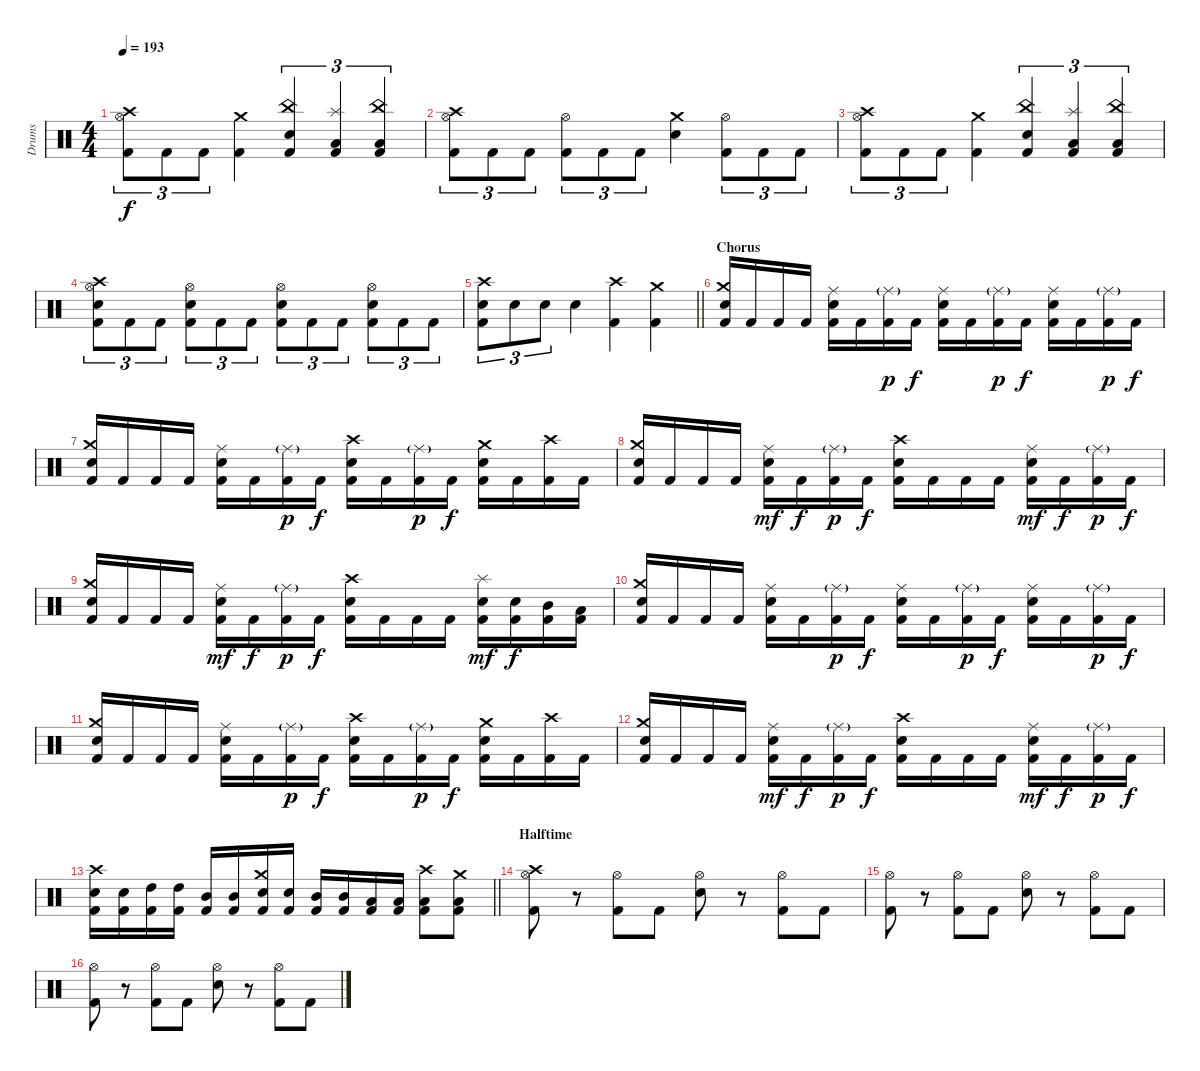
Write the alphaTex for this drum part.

\track ("Drums" "Drums") {instrument percussion}
\staff {score}
\articulation defaults
\ts (4 4)
\tempo 193
\clef neutral
\ks c
("Crash high (hit)" "Hi-Hat (open)" "Kick (hit) 2").8{tu (3 2) dy f} "Kick (hit) 2".8{tu (3 2)} "Kick (hit) 2".8{tu (3 2)} ("Crash medium (hit)" "Kick (hit) 2").4 ("China (hit)" "Snare (hit) 2" "Kick (hit) 2").4{tu (3 2)} ("Splash (hit)" "Low Floor Tom (hit)" "Kick (hit) 2").4{tu (3 2)} ("China (hit)" "Low Floor Tom (hit)" "Kick (hit) 2").4{tu (3 2)} |
("Crash high (hit)" "Hi-Hat (open)" "Kick (hit) 2").8{tu (3 2)} "Kick (hit) 2".8{tu (3 2)} "Kick (hit) 2".8{tu (3 2)} ("Hi-Hat (open)" "Kick (hit) 2").8{tu (3 2)} "Kick (hit) 2".8{tu (3 2)} "Kick (hit) 2".8{tu (3 2)} ("Crash medium (hit)" "Snare (hit) 2").4 ("Hi-Hat (open)" "Kick (hit) 2").8{tu (3 2)} "Kick (hit) 2".8{tu (3 2)} "Kick (hit) 2".8{tu (3 2)} |
("Crash high (hit)" "Hi-Hat (open)" "Kick (hit) 2").8{tu (3 2)} "Kick (hit) 2".8{tu (3 2)} "Kick (hit) 2".8{tu (3 2)} ("Crash medium (hit)" "Kick (hit) 2").4 ("China (hit)" "Snare (hit) 2" "Kick (hit) 2").4{tu (3 2)} ("Splash (hit)" "Low Floor Tom (hit)" "Kick (hit) 2").4{tu (3 2)} ("China (hit)" "Low Floor Tom (hit)" "Kick (hit) 2").4{tu (3 2)} |
("Crash high (hit)" "Hi-Hat (open)" "Snare (hit) 2" "Kick (hit) 2").8{tu (3 2)} "Kick (hit) 2".8{tu (3 2)} "Kick (hit) 2".8{tu (3 2)} ("Hi-Hat (open)" "Snare (hit) 2" "Kick (hit) 2").8{tu (3 2)} "Kick (hit) 2".8{tu (3 2)} "Kick (hit) 2".8{tu (3 2)} ("Hi-Hat (open)" "Snare (hit) 2" "Kick (hit) 2").8{tu (3 2)} "Kick (hit) 2".8{tu (3 2)} "Kick (hit) 2".8{tu (3 2)} ("Hi-Hat (open)" "Snare (hit) 2" "Kick (hit) 2").8{tu (3 2)} "Kick (hit) 2".8{tu (3 2)} "Kick (hit) 2".8{tu (3 2)} |
\barLineRight lightlight
("Crash high (hit)" "Snare (hit) 2" "Kick (hit) 2").8{tu (3 2)} "Snare (hit) 2".8{tu (3 2)} "Snare (hit) 2".8{tu (3 2)} "Snare (hit) 2".4 ("Crash high (hit)" "Kick (hit) 2").4 ("Crash medium (hit)" "Kick (hit) 2").4 |
\section ("" "Chorus")
("Crash medium (hit)" "Snare (hit) 2" "Kick (hit) 2").16 "Kick (hit) 2".16 "Kick (hit) 2".16 "Kick (hit) 2".16 ("Ride (middle)" "Snare (hit) 2" "Kick (hit) 2").16 "Kick (hit) 2".16 ("Ride (middle)"{g} "Kick (hit) 2").16{dy p} "Kick (hit) 2".16{dy f} ("Ride (middle)" "Snare (hit) 2" "Kick (hit) 2").16 "Kick (hit) 2".16 ("Ride (middle)"{g} "Kick (hit) 2").16{dy p} "Kick (hit) 2".16{dy f} ("Ride (middle)" "Snare (hit) 2" "Kick (hit) 2").16 "Kick (hit) 2".16 ("Ride (middle)"{g} "Kick (hit) 2").16{dy p} "Kick (hit) 2".16{dy f} |
("Crash medium (hit)" "Snare (hit) 2" "Kick (hit) 2").16 "Kick (hit) 2".16 "Kick (hit) 2".16 "Kick (hit) 2".16 ("Ride (middle)" "Snare (hit) 2" "Kick (hit) 2").16 "Kick (hit) 2".16 ("Ride (middle)"{g} "Kick (hit) 2").16{dy p} "Kick (hit) 2".16{dy f} ("Crash high (hit)" "Snare (hit) 2" "Kick (hit) 2").16 "Kick (hit) 2".16 ("Ride (middle)"{g} "Kick (hit) 2").16{dy p} "Kick (hit) 2".16{dy f} ("Crash medium (hit)" "Snare (hit) 2" "Kick (hit) 2").16 "Kick (hit) 2".16 ("Crash high (hit)" "Kick (hit) 2").16 "Kick (hit) 2".16 |
("Crash medium (hit)" "Snare (hit) 2" "Kick (hit) 2").16 "Kick (hit) 2".16 "Kick (hit) 2".16 "Kick (hit) 2".16 ("Ride (middle)" "Snare (hit) 2" "Kick (hit) 2").16{dy mf} "Kick (hit) 2".16{dy f} ("Ride (middle)"{g} "Kick (hit) 2").16{dy p} "Kick (hit) 2".16{dy f} ("Crash high (hit)" "Snare (hit) 2" "Kick (hit) 2").16 "Kick (hit) 2".16 "Kick (hit) 2".16 "Kick (hit) 2".16 ("Ride (middle)" "Snare (hit) 2" "Kick (hit) 2").16{dy mf} "Kick (hit) 2".16{dy f} ("Ride (middle)"{g} "Kick (hit) 2").16{dy p} "Kick (hit) 2".16{dy f} |
("Crash medium (hit)" "Snare (hit) 2" "Kick (hit) 2").16 "Kick (hit) 2".16 "Kick (hit) 2".16 "Kick (hit) 2".16 ("Ride (middle)" "Snare (hit) 2" "Kick (hit) 2").16{dy mf} "Kick (hit) 2".16{dy f} ("Ride (middle)"{g} "Kick (hit) 2").16{dy p} "Kick (hit) 2".16{dy f} ("Crash high (hit)" "Snare (hit) 2" "Kick (hit) 2").16 "Kick (hit) 2".16 "Kick (hit) 2".16 "Kick (hit) 2".16 ("Splash (hit)" "Snare (hit) 2" "Kick (hit) 2").16{dy mf} ("Snare (hit) 2" "Kick (hit) 2").16{dy f} ("Mid Tom (hit)" "Kick (hit) 2").16 ("Low Tom (hit)" "Kick (hit) 2").16 |
("Crash medium (hit)" "Snare (hit) 2" "Kick (hit) 2").16 "Kick (hit) 2".16 "Kick (hit) 2".16 "Kick (hit) 2".16 ("Ride (middle)" "Snare (hit) 2" "Kick (hit) 2").16 "Kick (hit) 2".16 ("Ride (middle)"{g} "Kick (hit) 2").16{dy p} "Kick (hit) 2".16{dy f} ("Ride (middle)" "Snare (hit) 2" "Kick (hit) 2").16 "Kick (hit) 2".16 ("Ride (middle)"{g} "Kick (hit) 2").16{dy p} "Kick (hit) 2".16{dy f} ("Ride (middle)" "Snare (hit) 2" "Kick (hit) 2").16 "Kick (hit) 2".16 ("Ride (middle)"{g} "Kick (hit) 2").16{dy p} "Kick (hit) 2".16{dy f} |
("Crash medium (hit)" "Snare (hit) 2" "Kick (hit) 2").16 "Kick (hit) 2".16 "Kick (hit) 2".16 "Kick (hit) 2".16 ("Ride (middle)" "Snare (hit) 2" "Kick (hit) 2").16 "Kick (hit) 2".16 ("Ride (middle)"{g} "Kick (hit) 2").16{dy p} "Kick (hit) 2".16{dy f} ("Crash high (hit)" "Snare (hit) 2" "Kick (hit) 2").16 "Kick (hit) 2".16 ("Ride (middle)"{g} "Kick (hit) 2").16{dy p} "Kick (hit) 2".16{dy f} ("Crash medium (hit)" "Snare (hit) 2" "Kick (hit) 2").16 "Kick (hit) 2".16 ("Crash high (hit)" "Kick (hit) 2").16 "Kick (hit) 2".16 |
("Crash medium (hit)" "Snare (hit) 2" "Kick (hit) 2").16 "Kick (hit) 2".16 "Kick (hit) 2".16 "Kick (hit) 2".16 ("Ride (middle)" "Snare (hit) 2" "Kick (hit) 2").16{dy mf} "Kick (hit) 2".16{dy f} ("Ride (middle)"{g} "Kick (hit) 2").16{dy p} "Kick (hit) 2".16{dy f} ("Crash high (hit)" "Snare (hit) 2" "Kick (hit) 2").16 "Kick (hit) 2".16 "Kick (hit) 2".16 "Kick (hit) 2".16 ("Ride (middle)" "Snare (hit) 2" "Kick (hit) 2").16{dy mf} "Kick (hit) 2".16{dy f} ("Ride (middle)"{g} "Kick (hit) 2").16{dy p} "Kick (hit) 2".16{dy f} |
\barLineRight lightlight
("Crash high (hit)" "Snare (hit) 2" "Kick (hit) 2").16 ("Snare (hit) 2" "Kick (hit) 2").16 ("High Tom (hit)" "Kick (hit) 2").16 ("High Tom (hit)" "Kick (hit) 2").16 ("Mid Tom (hit)" "Kick (hit) 2").16 ("Mid Tom (hit)" "Kick (hit) 2").16 ("Crash medium (hit)" "Snare (hit) 2" "Kick (hit) 2").16 ("Snare (hit) 2" "Kick (hit) 2").16 ("Mid Tom (hit)" "Kick (hit) 2").16 ("Mid Tom (hit)" "Kick (hit) 2").16 ("Low Tom (hit)" "Kick (hit) 2").16 ("Low Tom (hit)" "Kick (hit) 2").16 ("Crash high (hit)" "Low Floor Tom (hit)" "Kick (hit) 2").8 ("Crash medium (hit)" "Low Floor Tom (hit)" "Kick (hit) 2").8 |
\section ("" "Halftime")
("Crash high (hit)" "Hi-Hat (open)" "Kick (hit) 2").8 r.8 ("Hi-Hat (open)" "Kick (hit) 2").8 "Kick (hit) 2".8 ("Hi-Hat (open)" "Snare (hit) 2").8 r.8 ("Hi-Hat (open)" "Kick (hit) 2").8 "Kick (hit) 2".8 |
("Hi-Hat (open)" "Kick (hit) 2").8 r.8 ("Hi-Hat (open)" "Kick (hit) 2").8 "Kick (hit) 2".8 ("Hi-Hat (open)" "Snare (hit) 2").8 r.8 ("Hi-Hat (open)" "Kick (hit) 2").8 "Kick (hit) 2".8 |
("Hi-Hat (open)" "Kick (hit) 2").8 r.8 ("Hi-Hat (open)" "Kick (hit) 2").8 "Kick (hit) 2".8 ("Hi-Hat (open)" "Snare (hit) 2").8 r.8 ("Hi-Hat (open)" "Kick (hit) 2").8 "Kick (hit) 2".8
